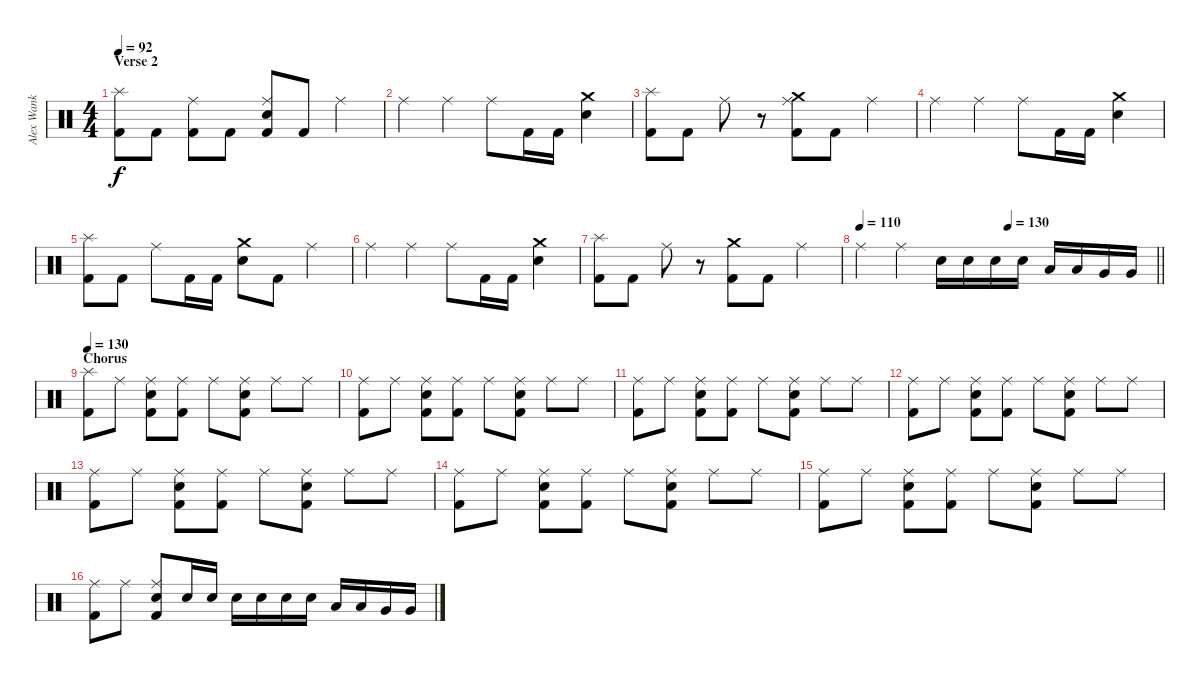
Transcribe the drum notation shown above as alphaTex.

\track ("Alex Wank" "Alex Wank") {instrument percussion}
\staff {score}
\articulation defaults
\ts (4 4)
\section ("" "Verse 2")
\tempo 92
\clef neutral
\ks c
("Kick (hit) 2" "Splash (hit)").8{dy f} "Kick (hit) 2".8 ("Kick (hit) 2" "Ride (middle)").8 "Kick (hit) 2".8 ("Kick (hit) 2" "Ride (middle)" "Snare (hit) 2").8 "Kick (hit) 2".8 "Ride (middle)".4 |
"Ride (middle)".4 "Ride (middle)".4 "Ride (middle)".8 "Kick (hit) 2".16 "Kick (hit) 2".16 ("Crash medium (hit)" "Snare (hit) 2").4 |
("Kick (hit) 2" "Splash (hit)").8 "Kick (hit) 2".8 "Ride (middle)".8 r.8 ("Kick (hit) 2" "Crash medium (hit)" "Ride (middle)").8 "Kick (hit) 2".8 "Ride (middle)".4 |
"Ride (middle)".4 "Ride (middle)".4 "Ride (middle)".8 "Kick (hit) 2".16 "Kick (hit) 2".16 ("Crash medium (hit)" "Snare (hit) 2").4 |
("Kick (hit) 2" "Splash (hit)").8 "Kick (hit) 2".8 "Ride (middle)".8 "Kick (hit) 2".16 "Kick (hit) 2".16 ("Crash medium (hit)" "Snare (hit) 2").8 "Kick (hit) 2".8 "Ride (middle)".4 |
"Ride (middle)".4 "Ride (middle)".4 "Ride (middle)".8 "Kick (hit) 2".16 "Kick (hit) 2".16 ("Crash medium (hit)" "Snare (hit) 2").4 |
("Kick (hit) 2" "Splash (hit)").8 "Kick (hit) 2".8 "Ride (middle)".8 r.8 ("Kick (hit) 2" "Crash medium (hit)").8 "Kick (hit) 2".8 "Ride (middle)".4 |
\tempo 110
\tempo (130 0.5)
\barLineRight lightlight "Ride (middle)".4 "Ride (middle)".4 "Snare (hit) 2".16 "Snare (hit) 2".16 "Snare (hit) 2".16 "Snare (hit) 2".16 "Low Tom (hit)".16 "Low Tom (hit)".16 "Very Low Tom (hit)".16 "Very Low Tom (hit)".16
|
\section ("" "Chorus")
\tempo 130
("Kick (hit) 2" "Splash (hit)").8 "Ride (middle)".8 ("Kick (hit) 2" "Snare (hit) 2" "Ride (middle)").8 ("Kick (hit) 2" "Ride (middle)").8 "Ride (middle)".8 ("Kick (hit) 2" "Snare (hit) 2" "Ride (middle)").8 "Ride (middle)".8 "Ride (middle)".8 |
("Kick (hit) 2" "Ride (middle)").8 "Ride (middle)".8 ("Kick (hit) 2" "Snare (hit) 2" "Ride (middle)").8 ("Kick (hit) 2" "Ride (middle)").8 "Ride (middle)".8 ("Kick (hit) 2" "Snare (hit) 2" "Ride (middle)").8 "Ride (middle)".8 "Ride (middle)".8 |
("Kick (hit) 2" "Ride (middle)").8 "Ride (middle)".8 ("Kick (hit) 2" "Snare (hit) 2" "Ride (middle)").8 ("Kick (hit) 2" "Ride (middle)").8 "Ride (middle)".8 ("Kick (hit) 2" "Snare (hit) 2" "Ride (middle)").8 "Ride (middle)".8 "Ride (middle)".8 |
("Kick (hit) 2" "Ride (middle)").8 "Ride (middle)".8 ("Kick (hit) 2" "Snare (hit) 2" "Ride (middle)").8 ("Kick (hit) 2" "Ride (middle)").8 "Ride (middle)".8 ("Kick (hit) 2" "Snare (hit) 2" "Ride (middle)").8 "Ride (middle)".8 "Ride (middle)".8 |
("Kick (hit) 2" "Ride (middle)").8 "Ride (middle)".8 ("Kick (hit) 2" "Snare (hit) 2" "Ride (middle)").8 ("Kick (hit) 2" "Ride (middle)").8 "Ride (middle)".8 ("Kick (hit) 2" "Snare (hit) 2" "Ride (middle)").8 "Ride (middle)".8 "Ride (middle)".8 |
("Kick (hit) 2" "Ride (middle)").8 "Ride (middle)".8 ("Kick (hit) 2" "Snare (hit) 2" "Ride (middle)").8 ("Kick (hit) 2" "Ride (middle)").8 "Ride (middle)".8 ("Kick (hit) 2" "Snare (hit) 2" "Ride (middle)").8 "Ride (middle)".8 "Ride (middle)".8 |
("Kick (hit) 2" "Ride (middle)").8 "Ride (middle)".8 ("Kick (hit) 2" "Snare (hit) 2" "Ride (middle)").8 ("Kick (hit) 2" "Ride (middle)").8 "Ride (middle)".8 ("Kick (hit) 2" "Snare (hit) 2" "Ride (middle)").8 "Ride (middle)".8 "Ride (middle)".8 |
("Kick (hit) 2" "Ride (middle)").8 "Ride (middle)".8 ("Kick (hit) 2" "Snare (hit) 2" "Ride (middle)").8 "Snare (hit) 2".16 "Snare (hit) 2".16 "Snare (hit) 2".16 "Snare (hit) 2".16 "Snare (hit) 2".16 "Snare (hit) 2".16 "Low Tom (hit)".16 "Low Tom (hit)".16 "Very Low Tom (hit)".16 "Very Low Tom (hit)".16
